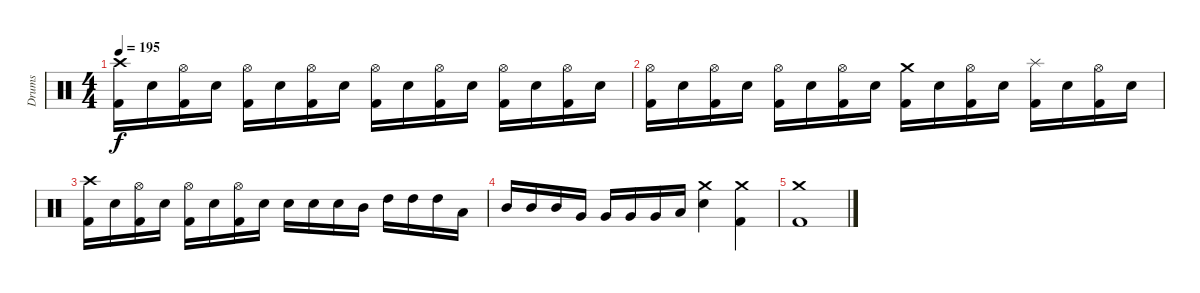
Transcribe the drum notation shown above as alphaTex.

\track ("Drums" "Drums") {instrument percussion}
\staff {score}
\articulation defaults
\ts (4 4)
\tempo 195
\clef neutral
\ks c
("Crash high (hit)" "Kick (hit) 2").16{dy f} "Electric Snare (hit)".16 ("Hi-Hat (open)" "Kick (hit) 2").16 "Electric Snare (hit)".16 ("Hi-Hat (open)" "Kick (hit) 2").16 "Electric Snare (hit)".16 ("Hi-Hat (open)" "Kick (hit) 2").16 "Electric Snare (hit)".16 ("Hi-Hat (open)" "Kick (hit) 2").16 "Electric Snare (hit)".16 ("Hi-Hat (open)" "Kick (hit) 2").16 "Electric Snare (hit)".16 ("Hi-Hat (open)" "Kick (hit) 2").16 "Electric Snare (hit)".16 ("Hi-Hat (open)" "Kick (hit) 2").16 "Electric Snare (hit)".16 |
("Hi-Hat (open)" "Kick (hit) 2").16 "Electric Snare (hit)".16 ("Hi-Hat (open)" "Kick (hit) 2").16 "Electric Snare (hit)".16 ("Hi-Hat (open)" "Kick (hit) 2").16 "Electric Snare (hit)".16 ("Hi-Hat (open)" "Kick (hit) 2").16 "Electric Snare (hit)".16 ("Crash medium (hit)" "Kick (hit) 2").16 "Electric Snare (hit)".16 ("Hi-Hat (open)" "Kick (hit) 2").16 "Electric Snare (hit)".16 ("Splash (hit)" "Kick (hit) 2").16 "Electric Snare (hit)".16 ("Hi-Hat (open)" "Kick (hit) 2").16 "Electric Snare (hit)".16 |
("Crash high (hit)" "Kick (hit) 2").16 "Electric Snare (hit)".16 ("Hi-Hat (open)" "Kick (hit) 2").16 "Electric Snare (hit)".16 ("Hi-Hat (open)" "Kick (hit) 2").16 "Electric Snare (hit)".16 ("Hi-Hat (open)" "Kick (hit) 2").16 "Electric Snare (hit)".16 "Electric Snare (hit)".16 "Electric Snare (hit)".16 "Electric Snare (hit)".16 "Mid Tom (hit)".16 "High Tom (hit)".16 "High Tom (hit)".16 "High Tom (hit)".16 "Low Tom (hit)".16 |
"Mid Tom (hit)".16 "Mid Tom (hit)".16 "Mid Tom (hit)".16 "Very Low Tom (hit)".16 "Very Low Tom (hit)".16 "Very Low Tom (hit)".16 "Very Low Tom (hit)".16 "Low Floor Tom (hit)".16 ("Crash medium (hit)" "Electric Snare (hit)").4 ("Crash medium (hit)" "Kick (hit) 2").4 |
("Crash medium (hit)" "Kick (hit) 2").1
